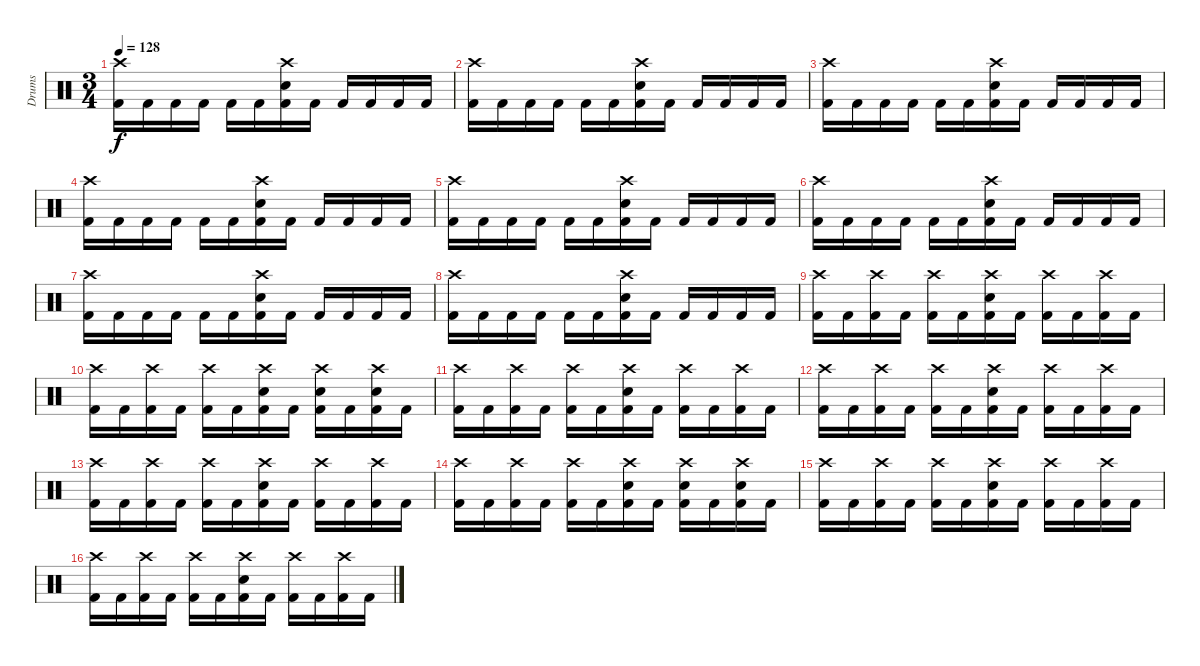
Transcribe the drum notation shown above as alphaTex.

\track ("Drums" "Drums") {instrument percussion}
\staff {score}
\articulation defaults
\ts (3 4)
\tempo 128
\clef neutral
\ks c
("Crash high (hit)" "Kick (hit) 2").16{dy f} "Kick (hit) 2".16 "Kick (hit) 2".16 "Kick (hit) 2".16 "Kick (hit) 2".16 "Kick (hit) 2".16 ("Crash high (hit)" "Snare (hit) 2" "Kick (hit) 2").16 "Kick (hit) 2".16 "Kick (hit) 2".16 "Kick (hit) 2".16 "Kick (hit) 2".16 "Kick (hit) 2".16 |
("Crash high (hit)" "Kick (hit) 2").16 "Kick (hit) 2".16 "Kick (hit) 2".16 "Kick (hit) 2".16 "Kick (hit) 2".16 "Kick (hit) 2".16 ("Crash high (hit)" "Snare (hit) 2" "Kick (hit) 2").16 "Kick (hit) 2".16 "Kick (hit) 2".16 "Kick (hit) 2".16 "Kick (hit) 2".16 "Kick (hit) 2".16 |
("Crash high (hit)" "Kick (hit) 2").16 "Kick (hit) 2".16 "Kick (hit) 2".16 "Kick (hit) 2".16 "Kick (hit) 2".16 "Kick (hit) 2".16 ("Crash high (hit)" "Snare (hit) 2" "Kick (hit) 2").16 "Kick (hit) 2".16 "Kick (hit) 2".16 "Kick (hit) 2".16 "Kick (hit) 2".16 "Kick (hit) 2".16 |
("Crash high (hit)" "Kick (hit) 2").16 "Kick (hit) 2".16 "Kick (hit) 2".16 "Kick (hit) 2".16 "Kick (hit) 2".16 "Kick (hit) 2".16 ("Crash high (hit)" "Snare (hit) 2" "Kick (hit) 2").16 "Kick (hit) 2".16 "Kick (hit) 2".16 "Kick (hit) 2".16 "Kick (hit) 2".16 "Kick (hit) 2".16 |
("Crash high (hit)" "Kick (hit) 2").16 "Kick (hit) 2".16 "Kick (hit) 2".16 "Kick (hit) 2".16 "Kick (hit) 2".16 "Kick (hit) 2".16 ("Crash high (hit)" "Snare (hit) 2" "Kick (hit) 2").16 "Kick (hit) 2".16 "Kick (hit) 2".16 "Kick (hit) 2".16 "Kick (hit) 2".16 "Kick (hit) 2".16 |
("Crash high (hit)" "Kick (hit) 2").16 "Kick (hit) 2".16 "Kick (hit) 2".16 "Kick (hit) 2".16 "Kick (hit) 2".16 "Kick (hit) 2".16 ("Crash high (hit)" "Snare (hit) 2" "Kick (hit) 2").16 "Kick (hit) 2".16 "Kick (hit) 2".16 "Kick (hit) 2".16 "Kick (hit) 2".16 "Kick (hit) 2".16 |
("Crash high (hit)" "Kick (hit) 2").16 "Kick (hit) 2".16 "Kick (hit) 2".16 "Kick (hit) 2".16 "Kick (hit) 2".16 "Kick (hit) 2".16 ("Crash high (hit)" "Snare (hit) 2" "Kick (hit) 2").16 "Kick (hit) 2".16 "Kick (hit) 2".16 "Kick (hit) 2".16 "Kick (hit) 2".16 "Kick (hit) 2".16 |
("Crash high (hit)" "Kick (hit) 2").16 "Kick (hit) 2".16 "Kick (hit) 2".16 "Kick (hit) 2".16 "Kick (hit) 2".16 "Kick (hit) 2".16 ("Crash high (hit)" "Snare (hit) 2" "Kick (hit) 2").16 "Kick (hit) 2".16 "Kick (hit) 2".16 "Kick (hit) 2".16 "Kick (hit) 2".16 "Kick (hit) 2".16 |
("Crash high (hit)" "Kick (hit) 2").16 "Kick (hit) 2".16 ("Crash high (hit)" "Kick (hit) 2").16 "Kick (hit) 2".16 ("Crash high (hit)" "Kick (hit) 2").16 "Kick (hit) 2".16 ("Crash high (hit)" "Snare (hit) 2" "Kick (hit) 2").16 "Kick (hit) 2".16 ("Crash high (hit)" "Kick (hit) 2").16 "Kick (hit) 2".16 ("Crash high (hit)" "Kick (hit) 2").16 "Kick (hit) 2".16 |
("Crash high (hit)" "Kick (hit) 2").16 "Kick (hit) 2".16 ("Crash high (hit)" "Kick (hit) 2").16 "Kick (hit) 2".16 ("Crash high (hit)" "Kick (hit) 2").16 "Kick (hit) 2".16 ("Crash high (hit)" "Snare (hit) 2" "Kick (hit) 2").16 "Kick (hit) 2".16 ("Crash high (hit)" "Snare (hit) 2" "Kick (hit) 2").16 "Kick (hit) 2".16 ("Crash high (hit)" "Snare (hit) 2" "Kick (hit) 2").16 "Kick (hit) 2".16 |
("Crash high (hit)" "Kick (hit) 2").16 "Kick (hit) 2".16 ("Crash high (hit)" "Kick (hit) 2").16 "Kick (hit) 2".16 ("Crash high (hit)" "Kick (hit) 2").16 "Kick (hit) 2".16 ("Crash high (hit)" "Snare (hit) 2" "Kick (hit) 2").16 "Kick (hit) 2".16 ("Crash high (hit)" "Kick (hit) 2").16 "Kick (hit) 2".16 ("Crash high (hit)" "Kick (hit) 2").16 "Kick (hit) 2".16 |
("Crash high (hit)" "Kick (hit) 2").16 "Kick (hit) 2".16 ("Crash high (hit)" "Kick (hit) 2").16 "Kick (hit) 2".16 ("Crash high (hit)" "Kick (hit) 2").16 "Kick (hit) 2".16 ("Crash high (hit)" "Snare (hit) 2" "Kick (hit) 2").16 "Kick (hit) 2".16 ("Crash high (hit)" "Kick (hit) 2").16 "Kick (hit) 2".16 ("Crash high (hit)" "Kick (hit) 2").16 "Kick (hit) 2".16 |
("Crash high (hit)" "Kick (hit) 2").16 "Kick (hit) 2".16 ("Crash high (hit)" "Kick (hit) 2").16 "Kick (hit) 2".16 ("Crash high (hit)" "Kick (hit) 2").16 "Kick (hit) 2".16 ("Crash high (hit)" "Snare (hit) 2" "Kick (hit) 2").16 "Kick (hit) 2".16 ("Crash high (hit)" "Kick (hit) 2").16 "Kick (hit) 2".16 ("Crash high (hit)" "Kick (hit) 2").16 "Kick (hit) 2".16 |
("Crash high (hit)" "Kick (hit) 2").16 "Kick (hit) 2".16 ("Crash high (hit)" "Kick (hit) 2").16 "Kick (hit) 2".16 ("Crash high (hit)" "Kick (hit) 2").16 "Kick (hit) 2".16 ("Crash high (hit)" "Snare (hit) 2" "Kick (hit) 2").16 "Kick (hit) 2".16 ("Crash high (hit)" "Snare (hit) 2" "Kick (hit) 2").16 "Kick (hit) 2".16 ("Crash high (hit)" "Snare (hit) 2" "Kick (hit) 2").16 "Kick (hit) 2".16 |
("Crash high (hit)" "Kick (hit) 2").16 "Kick (hit) 2".16 ("Crash high (hit)" "Kick (hit) 2").16 "Kick (hit) 2".16 ("Crash high (hit)" "Kick (hit) 2").16 "Kick (hit) 2".16 ("Crash high (hit)" "Snare (hit) 2" "Kick (hit) 2").16 "Kick (hit) 2".16 ("Crash high (hit)" "Kick (hit) 2").16 "Kick (hit) 2".16 ("Crash high (hit)" "Kick (hit) 2").16 "Kick (hit) 2".16 |
("Crash high (hit)" "Kick (hit) 2").16 "Kick (hit) 2".16 ("Crash high (hit)" "Kick (hit) 2").16 "Kick (hit) 2".16 ("Crash high (hit)" "Kick (hit) 2").16 "Kick (hit) 2".16 ("Crash high (hit)" "Snare (hit) 2" "Kick (hit) 2").16 "Kick (hit) 2".16 ("Crash high (hit)" "Kick (hit) 2").16 "Kick (hit) 2".16 ("Crash high (hit)" "Kick (hit) 2").16 "Kick (hit) 2".16
